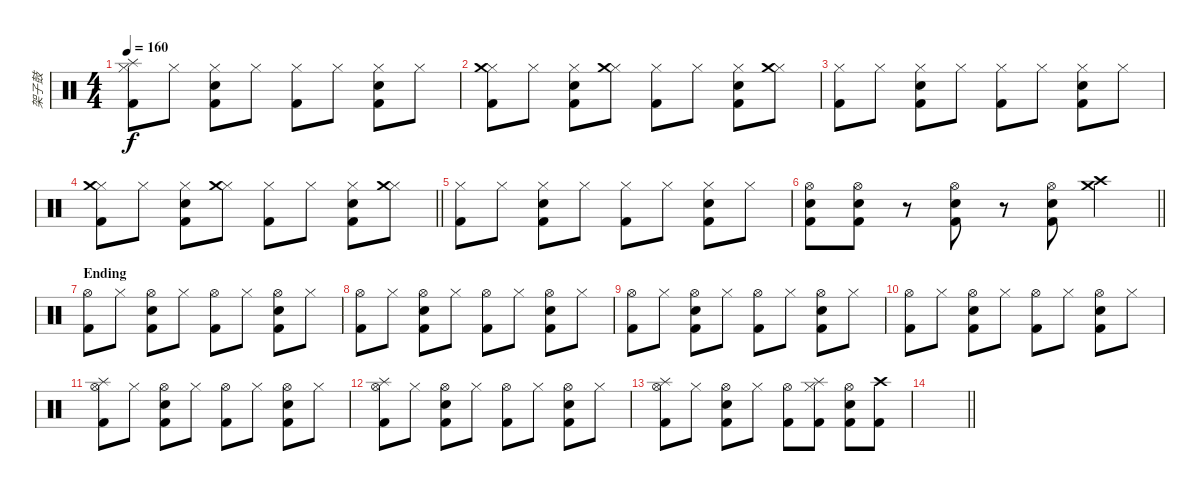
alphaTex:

\track ("架子鼓" "架子鼓") {instrument percussion}
\staff {score}
\articulation defaults
\ts (4 4)
\tempo 160
\clef neutral
\ks c
("Hi-Hat (closed)" "Splash (hit)" "Kick (hit) 2").8{dy f} "Hi-Hat (closed)".8 ("Hi-Hat (closed)" "Snare (hit) 2" "Kick (hit) 2").8 "Hi-Hat (closed)".8 ("Hi-Hat (closed)" "Kick (hit) 2").8 "Hi-Hat (closed)".8 ("Hi-Hat (closed)" "Snare (hit) 2" "Kick (hit) 2").8 "Hi-Hat (closed)".8 |
("Hi-Hat (closed)" "Crash medium (hit)" "Kick (hit) 2").8 "Hi-Hat (closed)".8 ("Hi-Hat (closed)" "Snare (hit) 2" "Kick (hit) 2").8 ("Hi-Hat (closed)" "Crash medium (hit)").8 ("Hi-Hat (closed)" "Kick (hit) 2").8 "Hi-Hat (closed)".8 ("Hi-Hat (closed)" "Snare (hit) 2" "Kick (hit) 2").8 ("Hi-Hat (closed)" "Crash medium (hit)").8 |
("Hi-Hat (closed)" "Kick (hit) 2").8 "Hi-Hat (closed)".8 ("Hi-Hat (closed)" "Snare (hit) 2" "Kick (hit) 2").8 "Hi-Hat (closed)".8 ("Hi-Hat (closed)" "Kick (hit) 2").8 "Hi-Hat (closed)".8 ("Hi-Hat (closed)" "Snare (hit) 2" "Kick (hit) 2").8 "Hi-Hat (closed)".8 |
\barLineRight lightlight
("Hi-Hat (closed)" "Crash medium (hit)" "Kick (hit) 2").8 "Hi-Hat (closed)".8 ("Hi-Hat (closed)" "Snare (hit) 2" "Kick (hit) 2").8 ("Hi-Hat (closed)" "Crash medium (hit)").8 ("Hi-Hat (closed)" "Kick (hit) 2").8 "Hi-Hat (closed)".8 ("Hi-Hat (closed)" "Snare (hit) 2" "Kick (hit) 2").8 ("Hi-Hat (closed)" "Crash medium (hit)").8 |
("Hi-Hat (closed)" "Kick (hit) 2").8 "Hi-Hat (closed)".8 ("Hi-Hat (closed)" "Snare (hit) 2" "Kick (hit) 2").8 "Hi-Hat (closed)".8 ("Hi-Hat (closed)" "Kick (hit) 2").8 "Hi-Hat (closed)".8 ("Hi-Hat (closed)" "Snare (hit) 2" "Kick (hit) 2").8 "Hi-Hat (closed)".8 |
\barLineRight lightlight
("Hi-Hat (open)" "Snare (hit) 2" "Kick (hit) 2").8 ("Hi-Hat (open)" "Snare (hit) 2" "Kick (hit) 2").8 r.8 ("Hi-Hat (open)" "Snare (hit) 2" "Kick (hit) 2").8 r.8 ("Hi-Hat (open)" "Snare (hit) 2" "Kick (hit) 2").8 ("Crash medium (hit)" "Crash high (hit)").4 |
\section ("" "Ending")
("Hi-Hat (open)" "Kick (hit) 2").8 "Hi-Hat (closed)".8 ("Hi-Hat (open)" "Snare (hit) 2" "Kick (hit) 2").8 "Hi-Hat (closed)".8 ("Hi-Hat (open)" "Kick (hit) 2").8 "Hi-Hat (closed)".8 ("Hi-Hat (open)" "Snare (hit) 2" "Kick (hit) 2").8 "Hi-Hat (closed)".8 |
("Hi-Hat (open)" "Kick (hit) 2").8 "Hi-Hat (closed)".8 ("Hi-Hat (open)" "Snare (hit) 2" "Kick (hit) 2").8 "Hi-Hat (closed)".8 ("Hi-Hat (open)" "Kick (hit) 2").8 "Hi-Hat (closed)".8 ("Hi-Hat (open)" "Snare (hit) 2" "Kick (hit) 2").8 "Hi-Hat (closed)".8 |
("Hi-Hat (open)" "Kick (hit) 2").8 "Hi-Hat (closed)".8 ("Hi-Hat (open)" "Snare (hit) 2" "Kick (hit) 2").8 "Hi-Hat (closed)".8 ("Hi-Hat (open)" "Kick (hit) 2").8 "Hi-Hat (closed)".8 ("Hi-Hat (open)" "Snare (hit) 2" "Kick (hit) 2").8 "Hi-Hat (closed)".8 |
("Hi-Hat (open)" "Kick (hit) 2").8 "Hi-Hat (closed)".8 ("Hi-Hat (open)" "Snare (hit) 2" "Kick (hit) 2").8 "Hi-Hat (closed)".8 ("Hi-Hat (open)" "Kick (hit) 2").8 "Hi-Hat (closed)".8 ("Hi-Hat (open)" "Snare (hit) 2" "Kick (hit) 2").8 "Hi-Hat (closed)".8 |
("Hi-Hat (open)" "Splash (hit)" "Kick (hit) 2").8 "Hi-Hat (closed)".8 ("Hi-Hat (open)" "Snare (hit) 2" "Kick (hit) 2").8 "Hi-Hat (closed)".8 ("Hi-Hat (open)" "Kick (hit) 2").8 "Hi-Hat (closed)".8 ("Hi-Hat (open)" "Snare (hit) 2" "Kick (hit) 2").8 "Hi-Hat (closed)".8 |
("Hi-Hat (open)" "Splash (hit)" "Kick (hit) 2").8 "Hi-Hat (closed)".8 ("Hi-Hat (open)" "Snare (hit) 2" "Kick (hit) 2").8 "Hi-Hat (closed)".8 ("Hi-Hat (open)" "Kick (hit) 2").8 "Hi-Hat (closed)".8 ("Hi-Hat (open)" "Snare (hit) 2" "Kick (hit) 2").8 "Hi-Hat (closed)".8 |
("Hi-Hat (open)" "Splash (hit)" "Kick (hit) 2").8 "Hi-Hat (closed)".8 ("Hi-Hat (open)" "Snare (hit) 2" "Kick (hit) 2").8 "Hi-Hat (closed)".8 ("Hi-Hat (open)" "Kick (hit) 2").8 ("Hi-Hat (closed)" "Splash (hit)" "Kick (hit) 2").8 ("Hi-Hat (open)" "Snare (hit) 2" "Kick (hit) 2").8 ("Crash high (hit)" "Kick (hit) 2").8 |
\barLineRight lightlight
